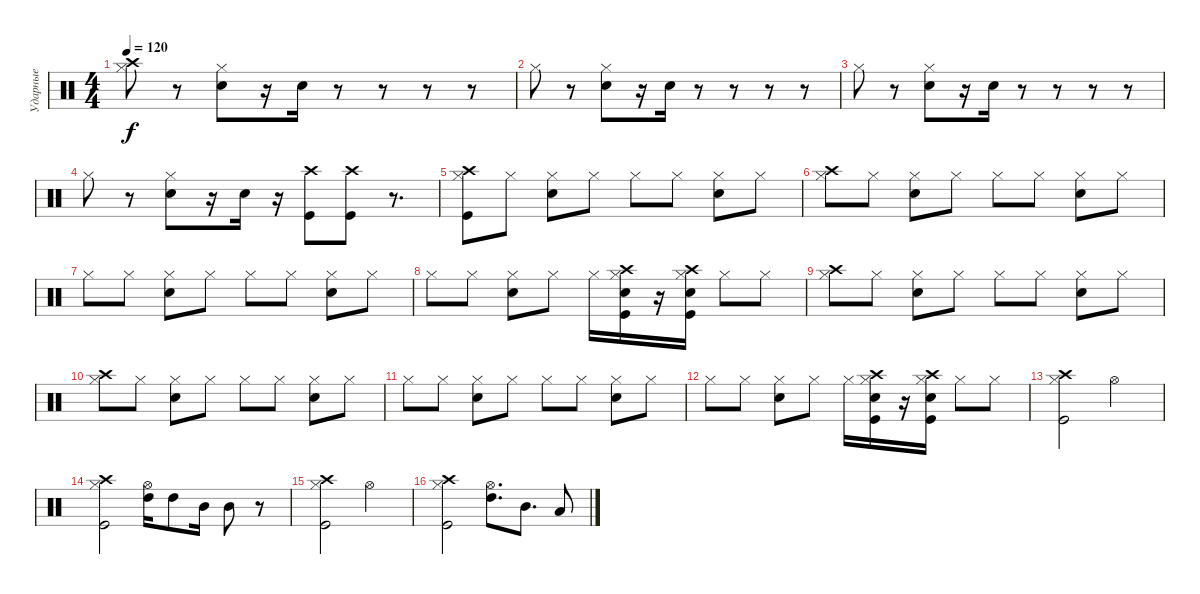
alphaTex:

\track ("Ударные" "Ударные") {instrument percussion}
\staff {score}
\articulation defaults
\ts (4 4)
\tempo 120
\clef neutral
\ks c
("Hi-Hat (closed)" "Crash high (hit)").8{dy f} r.8 ("Hi-Hat (closed)" "Electric Snare (hit)").8 r.16 "Electric Snare (hit)".16 r.8 r.8 r.8 r.8 |
"Hi-Hat (closed)".8 r.8 ("Hi-Hat (closed)" "Electric Snare (hit)").8 r.16 "Electric Snare (hit)".16 r.8 r.8 r.8 r.8 |
"Hi-Hat (closed)".8 r.8 ("Hi-Hat (closed)" "Electric Snare (hit)").8 r.16 "Electric Snare (hit)".16 r.8 r.8 r.8 r.8 |
"Hi-Hat (closed)".8 r.8 ("Hi-Hat (closed)" "Electric Snare (hit)").8 r.16 "Electric Snare (hit)".16 r.16 ("Crash high (hit)" "Kick (hit)").8 ("Crash high (hit)" "Kick (hit)").8 r.8{d} |
("Hi-Hat (closed)" "Crash high (hit)" "Kick (hit)").8 "Hi-Hat (closed)".8 ("Hi-Hat (closed)" "Electric Snare (hit)").8 "Hi-Hat (closed)".8 "Hi-Hat (closed)".8 "Hi-Hat (closed)".8 ("Hi-Hat (closed)" "Electric Snare (hit)").8 "Hi-Hat (closed)".8 |
("Hi-Hat (closed)" "Crash high (hit)").8 "Hi-Hat (closed)".8 ("Hi-Hat (closed)" "Electric Snare (hit)").8 "Hi-Hat (closed)".8 "Hi-Hat (closed)".8 "Hi-Hat (closed)".8 ("Hi-Hat (closed)" "Electric Snare (hit)").8 "Hi-Hat (closed)".8 |
"Hi-Hat (closed)".8 "Hi-Hat (closed)".8 ("Hi-Hat (closed)" "Electric Snare (hit)").8 "Hi-Hat (closed)".8 "Hi-Hat (closed)".8 "Hi-Hat (closed)".8 ("Hi-Hat (closed)" "Electric Snare (hit)").8 "Hi-Hat (closed)".8 |
"Hi-Hat (closed)".8 "Hi-Hat (closed)".8 ("Hi-Hat (closed)" "Electric Snare (hit)").8 "Hi-Hat (closed)".8 "Hi-Hat (closed)".16 ("Hi-Hat (closed)" "Electric Snare (hit)" "Crash high (hit)" "Kick (hit)").16 r.16 ("Hi-Hat (closed)" "Electric Snare (hit)" "Crash high (hit)" "Kick (hit)").16 "Hi-Hat (closed)".8 "Hi-Hat (closed)".8 |
("Hi-Hat (closed)" "Crash high (hit)").8 "Hi-Hat (closed)".8 ("Hi-Hat (closed)" "Electric Snare (hit)").8 "Hi-Hat (closed)".8 "Hi-Hat (closed)".8 "Hi-Hat (closed)".8 ("Hi-Hat (closed)" "Electric Snare (hit)").8 "Hi-Hat (closed)".8 |
("Hi-Hat (closed)" "Crash high (hit)").8 "Hi-Hat (closed)".8 ("Hi-Hat (closed)" "Electric Snare (hit)").8 "Hi-Hat (closed)".8 "Hi-Hat (closed)".8 "Hi-Hat (closed)".8 ("Hi-Hat (closed)" "Electric Snare (hit)").8 "Hi-Hat (closed)".8 |
"Hi-Hat (closed)".8 "Hi-Hat (closed)".8 ("Hi-Hat (closed)" "Electric Snare (hit)").8 "Hi-Hat (closed)".8 "Hi-Hat (closed)".8 "Hi-Hat (closed)".8 ("Hi-Hat (closed)" "Electric Snare (hit)").8 "Hi-Hat (closed)".8 |
"Hi-Hat (closed)".8 "Hi-Hat (closed)".8 ("Hi-Hat (closed)" "Electric Snare (hit)").8 "Hi-Hat (closed)".8 "Hi-Hat (closed)".16 ("Hi-Hat (closed)" "Electric Snare (hit)" "Crash high (hit)" "Kick (hit)").16 r.16 ("Hi-Hat (closed)" "Electric Snare (hit)" "Crash high (hit)" "Kick (hit)").16 "Hi-Hat (closed)".8 "Hi-Hat (closed)".8 |
("Crash high (hit)" "Hi-Hat (closed)" "Kick (hit)").2 "Hi-Hat (open)".2 |
("Hi-Hat (closed)" "Crash high (hit)" "Kick (hit)").2 ("Hi-Hat (open)" "High Tom (hit)").16 "High Tom (hit)".8 "Mid Tom (hit)".16 "Mid Tom (hit)".8 r.8 |
("Crash high (hit)" "Hi-Hat (closed)" "Kick (hit)").2 "Hi-Hat (open)".2 |
("Hi-Hat (closed)" "Crash high (hit)" "Kick (hit)").2 ("Hi-Hat (open)" "High Tom (hit)").8{d} "Mid Tom (hit)".8{d} "Low Tom (hit)".8
